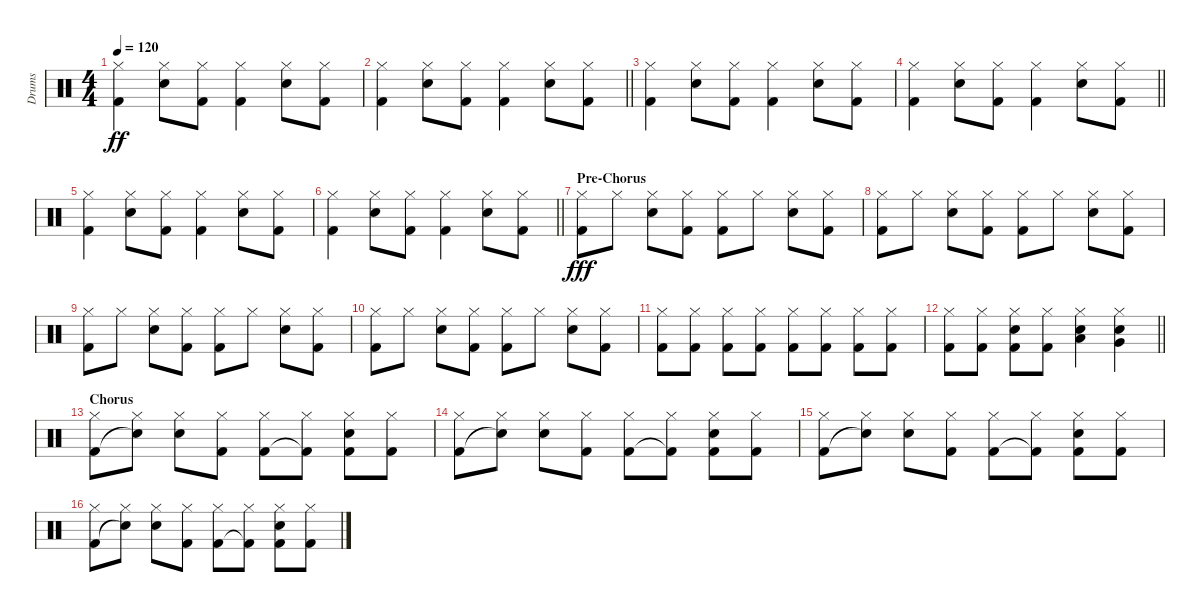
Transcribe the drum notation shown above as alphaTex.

\track ("Drums" "Drums") {instrument percussion}
\staff {score}
\articulation defaults
\ts (4 4)
\tempo 120
\clef neutral
\ks c
("Hi-Hat (closed)" "Kick (hit) 2").4{dy ff} ("Hi-Hat (closed)" "Snare (hit) 2").8 ("Hi-Hat (closed)" "Kick (hit) 2").8 ("Hi-Hat (closed)" "Kick (hit) 2").4 ("Hi-Hat (closed)" "Snare (hit) 2").8 ("Hi-Hat (closed)" "Kick (hit) 2").8 |
\barLineRight lightlight
("Hi-Hat (closed)" "Kick (hit) 2").4 ("Hi-Hat (closed)" "Snare (hit) 2").8 ("Hi-Hat (closed)" "Kick (hit) 2").8 ("Hi-Hat (closed)" "Kick (hit) 2").4 ("Hi-Hat (closed)" "Snare (hit) 2").8 ("Hi-Hat (closed)" "Kick (hit) 2").8 |
("Hi-Hat (closed)" "Kick (hit) 2").4 ("Hi-Hat (closed)" "Snare (hit) 2").8 ("Hi-Hat (closed)" "Kick (hit) 2").8 ("Hi-Hat (closed)" "Kick (hit) 2").4 ("Hi-Hat (closed)" "Snare (hit) 2").8 ("Hi-Hat (closed)" "Kick (hit) 2").8 |
\barLineRight lightlight
("Hi-Hat (closed)" "Kick (hit) 2").4 ("Hi-Hat (closed)" "Snare (hit) 2").8 ("Hi-Hat (closed)" "Kick (hit) 2").8 ("Hi-Hat (closed)" "Kick (hit) 2").4 ("Hi-Hat (closed)" "Snare (hit) 2").8 ("Hi-Hat (closed)" "Kick (hit) 2").8 |
("Hi-Hat (closed)" "Kick (hit) 2").4 ("Hi-Hat (closed)" "Snare (hit) 2").8 ("Hi-Hat (closed)" "Kick (hit) 2").8 ("Hi-Hat (closed)" "Kick (hit) 2").4 ("Hi-Hat (closed)" "Snare (hit) 2").8 ("Hi-Hat (closed)" "Kick (hit) 2").8 |
\barLineRight lightlight
("Hi-Hat (closed)" "Kick (hit) 2").4 ("Hi-Hat (closed)" "Snare (hit) 2").8 ("Hi-Hat (closed)" "Kick (hit) 2").8 ("Hi-Hat (closed)" "Kick (hit) 2").4 ("Hi-Hat (closed)" "Snare (hit) 2").8 ("Hi-Hat (closed)" "Kick (hit) 2").8 |
\section ("" "Pre-Chorus")
("Hi-Hat (closed)" "Kick (hit) 2").8{dy fff} "Hi-Hat (closed)".8 ("Hi-Hat (closed)" "Snare (hit) 2").8 ("Hi-Hat (closed)" "Kick (hit) 2").8 ("Hi-Hat (closed)" "Kick (hit) 2").8 "Hi-Hat (closed)".8 ("Hi-Hat (closed)" "Snare (hit) 2").8 ("Hi-Hat (closed)" "Kick (hit) 2").8 |
("Hi-Hat (closed)" "Kick (hit) 2").8 "Hi-Hat (closed)".8 ("Hi-Hat (closed)" "Snare (hit) 2").8 ("Hi-Hat (closed)" "Kick (hit) 2").8 ("Hi-Hat (closed)" "Kick (hit) 2").8 "Hi-Hat (closed)".8 ("Hi-Hat (closed)" "Snare (hit) 2").8 ("Hi-Hat (closed)" "Kick (hit) 2").8 |
("Hi-Hat (closed)" "Kick (hit) 2").8 "Hi-Hat (closed)".8 ("Hi-Hat (closed)" "Snare (hit) 2").8 ("Hi-Hat (closed)" "Kick (hit) 2").8 ("Hi-Hat (closed)" "Kick (hit) 2").8 "Hi-Hat (closed)".8 ("Hi-Hat (closed)" "Snare (hit) 2").8 ("Hi-Hat (closed)" "Kick (hit) 2").8 |
("Hi-Hat (closed)" "Kick (hit) 2").8 "Hi-Hat (closed)".8 ("Hi-Hat (closed)" "Snare (hit) 2").8 ("Hi-Hat (closed)" "Kick (hit) 2").8 ("Hi-Hat (closed)" "Kick (hit) 2").8 "Hi-Hat (closed)".8 ("Hi-Hat (closed)" "Snare (hit) 2").8 ("Hi-Hat (closed)" "Kick (hit) 2").8 |
("Hi-Hat (closed)" "Kick (hit) 2").8 ("Hi-Hat (closed)" "Kick (hit) 2").8 ("Hi-Hat (closed)" "Kick (hit) 2").8 ("Hi-Hat (closed)" "Kick (hit) 2").8 ("Hi-Hat (closed)" "Kick (hit) 2").8 ("Hi-Hat (closed)" "Kick (hit) 2").8 ("Hi-Hat (closed)" "Kick (hit) 2").8 ("Hi-Hat (closed)" "Kick (hit) 2").8 |
\barLineRight lightlight
("Hi-Hat (closed)" "Kick (hit) 2").8 ("Hi-Hat (closed)" "Kick (hit) 2").8 ("Hi-Hat (closed)" "Snare (hit) 2" "Kick (hit) 2").8 ("Hi-Hat (closed)" "Kick (hit) 2").8 ("Hi-Hat (closed)" "Snare (hit) 2" "Low Tom (hit)").4 ("Hi-Hat (closed)" "Snare (hit) 2" "Very Low Tom (hit)").4 |
\section ("" "Chorus")
("Hi-Hat (closed)" "Kick (hit) 2").8 ("Hi-Hat (closed)" "Snare (hit)"{t}).8 ("Hi-Hat (closed)" "Snare (hit) 2").8 ("Hi-Hat (closed)" "Kick (hit) 2").8 ("Hi-Hat (closed)" "Kick (hit) 2").8 ("Hi-Hat (closed)" "Kick (hit) 2"{t}).8 ("Hi-Hat (closed)" "Snare (hit) 2" "Kick (hit) 2").8 ("Hi-Hat (closed)" "Kick (hit) 2").8 |
("Hi-Hat (closed)" "Kick (hit) 2").8 ("Hi-Hat (closed)" "Snare (hit)"{t}).8 ("Hi-Hat (closed)" "Snare (hit) 2").8 ("Hi-Hat (closed)" "Kick (hit) 2").8 ("Hi-Hat (closed)" "Kick (hit) 2").8 ("Hi-Hat (closed)" "Kick (hit) 2"{t}).8 ("Hi-Hat (closed)" "Snare (hit) 2" "Kick (hit) 2").8 ("Hi-Hat (closed)" "Kick (hit) 2").8 |
("Hi-Hat (closed)" "Kick (hit) 2").8 ("Hi-Hat (closed)" "Snare (hit)"{t}).8 ("Hi-Hat (closed)" "Snare (hit) 2").8 ("Hi-Hat (closed)" "Kick (hit) 2").8 ("Hi-Hat (closed)" "Kick (hit) 2").8 ("Hi-Hat (closed)" "Kick (hit) 2"{t}).8 ("Hi-Hat (closed)" "Snare (hit) 2" "Kick (hit) 2").8 ("Hi-Hat (closed)" "Kick (hit) 2").8 |
("Hi-Hat (closed)" "Kick (hit) 2").8 ("Hi-Hat (closed)" "Snare (hit)"{t}).8 ("Hi-Hat (closed)" "Snare (hit) 2").8 ("Hi-Hat (closed)" "Kick (hit) 2").8 ("Hi-Hat (closed)" "Kick (hit) 2").8 ("Hi-Hat (closed)" "Kick (hit) 2"{t}).8 ("Hi-Hat (closed)" "Snare (hit) 2" "Kick (hit) 2").8 ("Hi-Hat (closed)" "Kick (hit) 2").8
